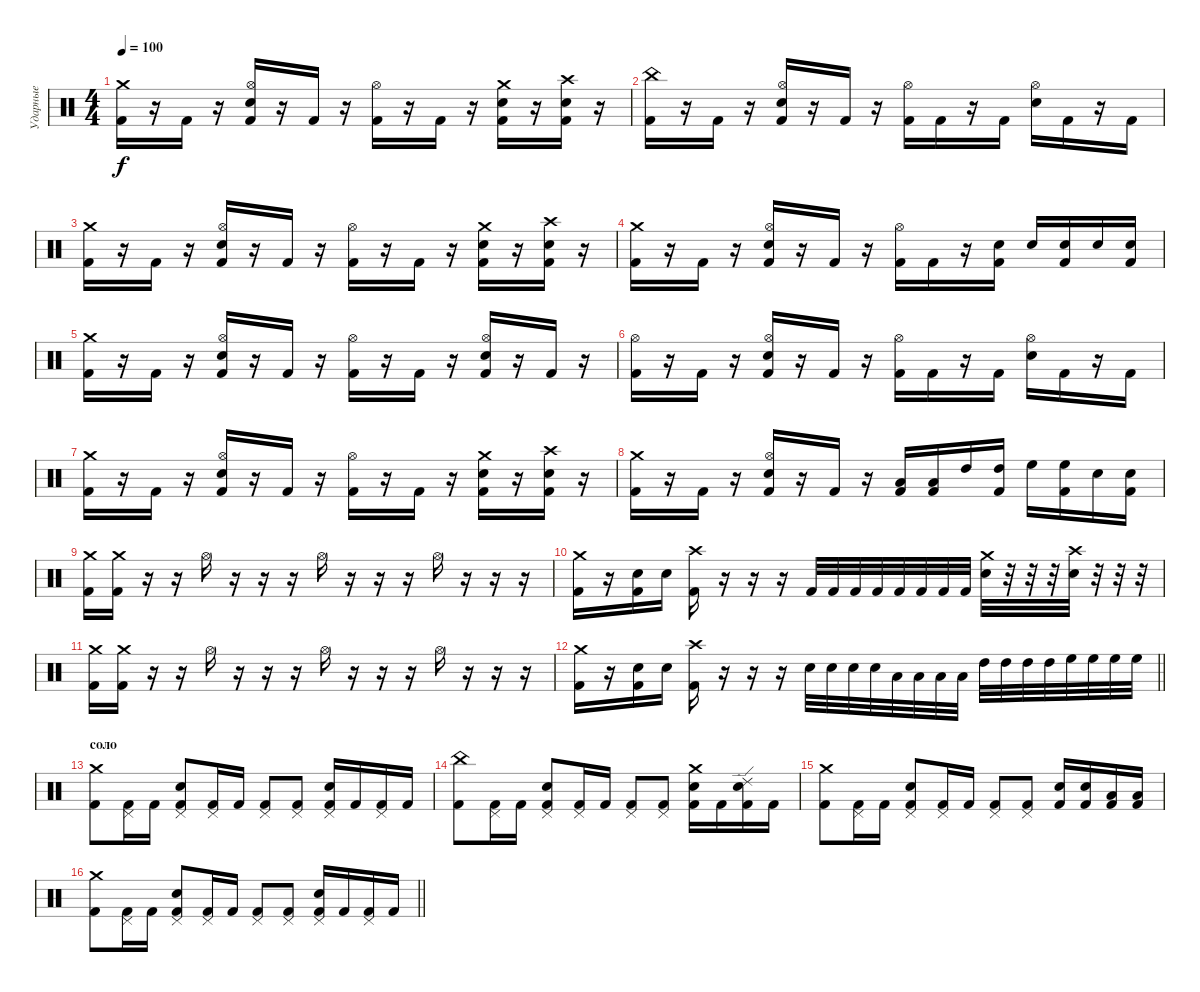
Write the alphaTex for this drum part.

\track ("Ударные" "Ударные") {instrument percussion}
\staff {score}
\articulation defaults
\ts (4 4)
\tempo 100
\clef neutral
\ks c
("Crash medium (hit)" "Kick (hit) 2").16{dy f} r.16 "Kick (hit) 2".16 r.16 ("Hi-Hat (open)" "Snare (hit) 2" "Kick (hit) 2").16 r.16 "Kick (hit) 2".16 r.16 ("Hi-Hat (open)" "Kick (hit) 2").16 r.16 "Kick (hit) 2".16 r.16 ("Crash medium (hit)" "Snare (hit) 2" "Kick (hit) 2").16 r.16 ("Crash high (hit)" "Snare (hit) 2" "Kick (hit) 2").16 r.16 |
("China (hit)" "Kick (hit) 2").16 r.16 "Kick (hit) 2".16 r.16 ("Hi-Hat (open)" "Snare (hit) 2" "Kick (hit) 2").16 r.16 "Kick (hit) 2".16 r.16 ("Hi-Hat (open)" "Kick (hit) 2").16 "Kick (hit) 2".16 r.16 "Kick (hit) 2".16 ("Hi-Hat (open)" "Snare (hit) 2").16 "Kick (hit) 2".16 r.16 "Kick (hit) 2".16 |
("Crash medium (hit)" "Kick (hit) 2").16 r.16 "Kick (hit) 2".16 r.16 ("Hi-Hat (open)" "Snare (hit) 2" "Kick (hit) 2").16 r.16 "Kick (hit) 2".16 r.16 ("Hi-Hat (open)" "Kick (hit) 2").16 r.16 "Kick (hit) 2".16 r.16 ("Crash medium (hit)" "Snare (hit) 2" "Kick (hit) 2").16 r.16 ("Crash high (hit)" "Snare (hit) 2" "Kick (hit) 2").16 r.16 |
("Crash medium (hit)" "Kick (hit) 2").16 r.16 "Kick (hit) 2".16 r.16 ("Hi-Hat (open)" "Snare (hit) 2" "Kick (hit) 2").16 r.16 "Kick (hit) 2".16 r.16 ("Hi-Hat (open)" "Kick (hit) 2").16 "Kick (hit) 2".16 r.16 ("Snare (hit) 2" "Kick (hit) 2").16 "Snare (hit) 2".16 ("Snare (hit) 2" "Kick (hit) 2").16 "Snare (hit) 2".16 ("Snare (hit) 2" "Kick (hit) 2").16 |
("Crash medium (hit)" "Kick (hit) 2").16 r.16 "Kick (hit) 2".16 r.16 ("Hi-Hat (open)" "Snare (hit) 2" "Kick (hit) 2").16 r.16 "Kick (hit) 2".16 r.16 ("Hi-Hat (open)" "Kick (hit) 2").16 r.16 "Kick (hit) 2".16 r.16 ("Hi-Hat (open)" "Snare (hit) 2" "Kick (hit) 2").16 r.16 "Kick (hit) 2".16 r.16 |
("Hi-Hat (open)" "Kick (hit) 2").16 r.16 "Kick (hit) 2".16 r.16 ("Hi-Hat (open)" "Snare (hit) 2" "Kick (hit) 2").16 r.16 "Kick (hit) 2".16 r.16 ("Hi-Hat (open)" "Kick (hit) 2").16 "Kick (hit) 2".16 r.16 "Kick (hit) 2".16 ("Hi-Hat (open)" "Snare (hit) 2").16 "Kick (hit) 2".16 r.16 "Kick (hit) 2".16 |
("Crash medium (hit)" "Kick (hit) 2").16 r.16 "Kick (hit) 2".16 r.16 ("Hi-Hat (open)" "Snare (hit) 2" "Kick (hit) 2").16 r.16 "Kick (hit) 2".16 r.16 ("Hi-Hat (open)" "Kick (hit) 2").16 r.16 "Kick (hit) 2".16 r.16 ("Crash medium (hit)" "Snare (hit) 2" "Kick (hit) 2").16 r.16 ("Crash high (hit)" "Snare (hit) 2" "Kick (hit) 2").16 r.16 |
("Crash medium (hit)" "Kick (hit) 2").16 r.16 "Kick (hit) 2".16 r.16 ("Hi-Hat (open)" "Snare (hit) 2" "Kick (hit) 2").16 r.16 "Kick (hit) 2".16 r.16 ("Low Tom (hit)" "Kick (hit) 2").16 ("Low Tom (hit)" "Kick (hit) 2").16 "High Tom (hit)".16 ("High Tom (hit)" "Kick (hit) 2").16 "High Floor Tom (hit)".16 ("High Floor Tom (hit)" "Kick (hit) 2").16 "Snare (hit) 2".16 ("Snare (hit) 2" "Kick (hit) 2").16 |
("Crash medium (hit)" "Kick (hit) 2").16 ("Crash medium (hit)" "Kick (hit) 2").16 r.16 r.16 "Hi-Hat (open)".16 r.16 r.16 r.16 "Hi-Hat (open)".16 r.16 r.16 r.16 "Hi-Hat (open)".16 r.16 r.16 r.16 |
("Crash medium (hit)" "Kick (hit) 2").16 r.16 ("Snare (hit) 2" "Kick (hit) 2").16 "Snare (hit) 2".16 ("Crash high (hit)" "Kick (hit) 2").16 r.16 r.16 r.16 "Kick (hit) 2".32 "Kick (hit) 2".32 "Kick (hit) 2".32 "Kick (hit) 2".32 "Kick (hit) 2".32 "Kick (hit) 2".32 "Kick (hit) 2".32 "Kick (hit) 2".32 ("Crash medium (hit)" "Snare (hit) 2").32 r.32 r.32 r.32 ("Snare (hit) 2" "Crash high (hit)").32 r.32 r.32 r.32 |
("Crash medium (hit)" "Kick (hit) 2").16 ("Crash medium (hit)" "Kick (hit) 2").16 r.16 r.16 "Hi-Hat (open)".16 r.16 r.16 r.16 "Hi-Hat (open)".16 r.16 r.16 r.16 "Hi-Hat (open)".16 r.16 r.16 r.16 |
\barLineRight lightlight
("Crash medium (hit)" "Kick (hit) 2").16 r.16 ("Snare (hit) 2" "Kick (hit) 2").16 "Snare (hit) 2".16 ("Crash high (hit)" "Kick (hit) 2").16 r.16 r.16 r.16 "Snare (hit) 2".32 "Snare (hit) 2".32 "Snare (hit) 2".32 "Snare (hit) 2".32 "Low Tom (hit)".32 "Low Tom (hit)".32 "Low Tom (hit)".32 "Low Tom (hit)".32 "High Tom (hit)".32 "High Tom (hit)".32 "High Tom (hit)".32 "High Tom (hit)".32 "High Floor Tom (hit)".32 "High Floor Tom (hit)".32 "High Floor Tom (hit)".32 "High Floor Tom (hit)".32 |
\section ("" "соло")
("Crash medium (hit)" "Kick (hit) 2").8 ("Pedal Hi-Hat (hit)" "Kick (hit) 2").16 "Kick (hit) 2".16 ("Snare (hit) 2" "Pedal Hi-Hat (hit)" "Kick (hit) 2").8 ("Pedal Hi-Hat (hit)" "Kick (hit) 2").16 "Kick (hit) 2".16 ("Pedal Hi-Hat (hit)" "Kick (hit) 2").8 ("Pedal Hi-Hat (hit)" "Kick (hit) 2").8 ("Snare (hit) 2" "Pedal Hi-Hat (hit)" "Kick (hit) 2").16 "Kick (hit) 2".16 ("Pedal Hi-Hat (hit)" "Kick (hit) 2").16 "Kick (hit) 2".16 |
("China (hit)" "Kick (hit) 2").8 ("Pedal Hi-Hat (hit)" "Kick (hit) 2").16 "Kick (hit) 2".16 ("Snare (hit) 2" "Pedal Hi-Hat (hit)" "Kick (hit) 2").8 ("Pedal Hi-Hat (hit)" "Kick (hit) 2").16 "Kick (hit) 2".16 ("Pedal Hi-Hat (hit)" "Kick (hit) 2").8 ("Pedal Hi-Hat (hit)" "Kick (hit) 2").8 ("Snare (hit) 2" "Crash medium (hit)" "Kick (hit) 2").16 "Kick (hit) 2".16 ("Snare (hit) 2" "Ride (edge) 2" "Kick (hit) 2").16 "Kick (hit) 2".16 |
("Crash medium (hit)" "Kick (hit) 2").8 ("Pedal Hi-Hat (hit)" "Kick (hit) 2").16 "Kick (hit) 2".16 ("Snare (hit) 2" "Pedal Hi-Hat (hit)" "Kick (hit) 2").8 ("Pedal Hi-Hat (hit)" "Kick (hit) 2").16 "Kick (hit) 2".16 ("Pedal Hi-Hat (hit)" "Kick (hit) 2").8 ("Pedal Hi-Hat (hit)" "Kick (hit) 2").8 ("Snare (hit) 2" "Kick (hit) 2").16 ("Snare (hit) 2" "Kick (hit) 2").16 ("Low Tom (hit)" "Kick (hit) 2").16 ("Low Tom (hit)" "Kick (hit) 2").16 |
\barLineRight lightlight
("Crash medium (hit)" "Kick (hit) 2").8 ("Pedal Hi-Hat (hit)" "Kick (hit) 2").16 "Kick (hit) 2".16 ("Snare (hit) 2" "Pedal Hi-Hat (hit)" "Kick (hit) 2").8 ("Pedal Hi-Hat (hit)" "Kick (hit) 2").16 "Kick (hit) 2".16 ("Pedal Hi-Hat (hit)" "Kick (hit) 2").8 ("Pedal Hi-Hat (hit)" "Kick (hit) 2").8 ("Snare (hit) 2" "Pedal Hi-Hat (hit)" "Kick (hit) 2").16 "Kick (hit) 2".16 ("Pedal Hi-Hat (hit)" "Kick (hit) 2").16 "Kick (hit) 2".16
